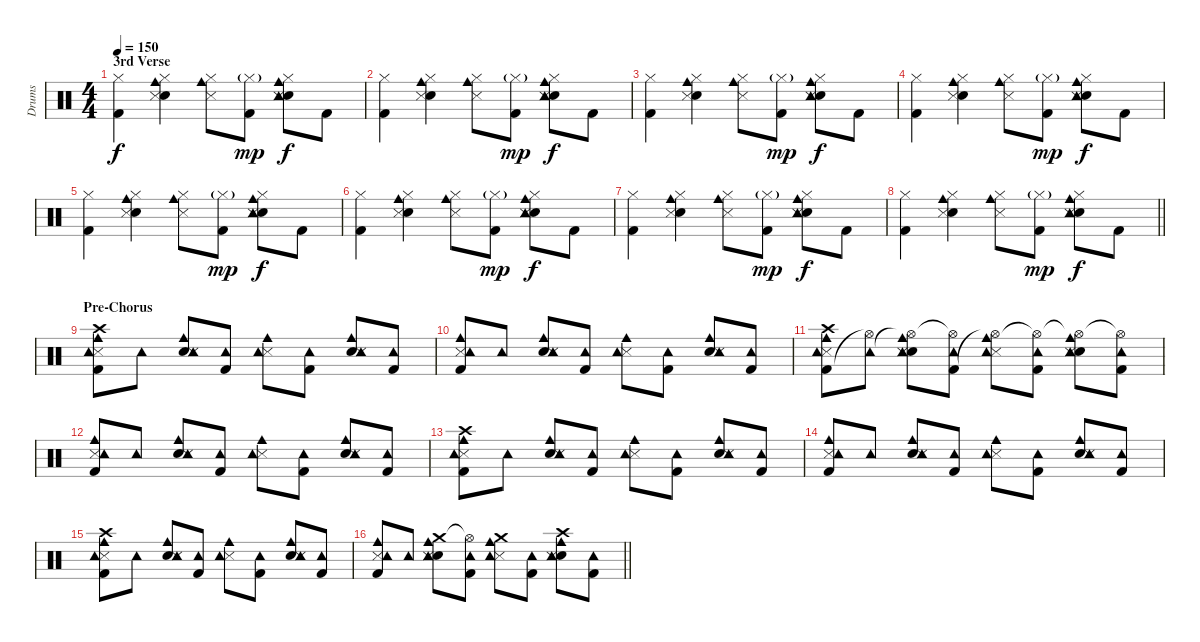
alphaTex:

\track ("Drums" "Drums") {instrument percussion}
\staff {score}
\articulation defaults
\ts (4 4)
\section ("" "3rd Verse")
\tempo 150
\clef neutral
\ks c
("Kick (hit) 2" "Hi-Hat (closed)").4{dy f} ("Electric Snare (hit)" "Hi-Hat (closed)" "Cowbell medium (hit)" "Snare (side stick) 3").4 ("Hi-Hat (closed)" "Cowbell medium (hit)" "Snare (side stick) 3").8 ("Kick (hit) 2" "Hi-Hat (closed)"{g}).8{dy mp} ("Electric Snare (hit)" "Hi-Hat (closed)" "Cowbell medium (hit)" "Snare (side stick) 3" "Tambourine (hit)").8{dy f} "Kick (hit) 2".8 |
("Kick (hit) 2" "Hi-Hat (closed)").4 ("Electric Snare (hit)" "Hi-Hat (closed)" "Cowbell medium (hit)" "Snare (side stick) 3").4 ("Hi-Hat (closed)" "Cowbell medium (hit)" "Snare (side stick) 3").8 ("Kick (hit) 2" "Hi-Hat (closed)"{g}).8{dy mp} ("Electric Snare (hit)" "Hi-Hat (closed)" "Cowbell medium (hit)" "Snare (side stick) 3" "Tambourine (hit)").8{dy f} "Kick (hit) 2".8 |
("Kick (hit) 2" "Hi-Hat (closed)").4 ("Electric Snare (hit)" "Hi-Hat (closed)" "Cowbell medium (hit)" "Snare (side stick) 3").4 ("Hi-Hat (closed)" "Cowbell medium (hit)" "Snare (side stick) 3").8 ("Kick (hit) 2" "Hi-Hat (closed)"{g}).8{dy mp} ("Electric Snare (hit)" "Hi-Hat (closed)" "Cowbell medium (hit)" "Snare (side stick) 3" "Tambourine (hit)").8{dy f} "Kick (hit) 2".8 |
("Kick (hit) 2" "Hi-Hat (closed)").4 ("Electric Snare (hit)" "Hi-Hat (closed)" "Cowbell medium (hit)" "Snare (side stick) 3").4 ("Hi-Hat (closed)" "Cowbell medium (hit)" "Snare (side stick) 3").8 ("Kick (hit) 2" "Hi-Hat (closed)"{g}).8{dy mp} ("Electric Snare (hit)" "Hi-Hat (closed)" "Cowbell medium (hit)" "Snare (side stick) 3" "Tambourine (hit)").8{dy f} "Kick (hit) 2".8 |
("Kick (hit) 2" "Hi-Hat (closed)").4 ("Electric Snare (hit)" "Hi-Hat (closed)" "Cowbell medium (hit)" "Snare (side stick) 3").4 ("Hi-Hat (closed)" "Cowbell medium (hit)" "Snare (side stick) 3").8 ("Kick (hit) 2" "Hi-Hat (closed)"{g}).8{dy mp} ("Electric Snare (hit)" "Hi-Hat (closed)" "Cowbell medium (hit)" "Snare (side stick) 3" "Tambourine (hit)").8{dy f} "Kick (hit) 2".8 |
("Kick (hit) 2" "Hi-Hat (closed)").4 ("Electric Snare (hit)" "Hi-Hat (closed)" "Cowbell medium (hit)" "Snare (side stick) 3").4 ("Hi-Hat (closed)" "Cowbell medium (hit)" "Snare (side stick) 3").8 ("Kick (hit) 2" "Hi-Hat (closed)"{g}).8{dy mp} ("Electric Snare (hit)" "Hi-Hat (closed)" "Cowbell medium (hit)" "Snare (side stick) 3" "Tambourine (hit)").8{dy f} "Kick (hit) 2".8 |
("Kick (hit) 2" "Hi-Hat (closed)").4 ("Electric Snare (hit)" "Hi-Hat (closed)" "Cowbell medium (hit)" "Snare (side stick) 3").4 ("Hi-Hat (closed)" "Cowbell medium (hit)" "Snare (side stick) 3").8 ("Kick (hit) 2" "Hi-Hat (closed)"{g}).8{dy mp} ("Electric Snare (hit)" "Hi-Hat (closed)" "Cowbell medium (hit)" "Snare (side stick) 3" "Tambourine (hit)").8{dy f} "Kick (hit) 2".8 |
\barLineRight lightlight
("Kick (hit) 2" "Hi-Hat (closed)").4 ("Electric Snare (hit)" "Hi-Hat (closed)" "Cowbell medium (hit)" "Snare (side stick) 3").4 ("Hi-Hat (closed)" "Cowbell medium (hit)" "Snare (side stick) 3").8 ("Kick (hit) 2" "Hi-Hat (closed)"{g}).8{dy mp} ("Electric Snare (hit)" "Hi-Hat (closed)" "Cowbell medium (hit)" "Snare (side stick) 3" "Tambourine (hit)").8{dy f} "Kick (hit) 2".8 |
\section ("" "Pre-Chorus")
("Kick (hit) 2" "Crash high (hit)" "Cowbell medium (hit)" "Snare (side stick) 3" "Tambourine (hit)").8 "Tambourine (hit)".8 ("Electric Snare (hit)" "Cowbell medium (hit)" "Snare (side stick) 3" "Tambourine (hit)").8 ("Kick (hit) 2" "Tambourine (hit)").8 ("Cowbell medium (hit)" "Snare (side stick) 3" "Tambourine (hit)").8 ("Kick (hit) 2" "Tambourine (hit)").8 ("Electric Snare (hit)" "Cowbell medium (hit)" "Snare (side stick) 3" "Tambourine (hit)").8 ("Kick (hit) 2" "Tambourine (hit)").8 |
("Kick (hit) 2" "Cowbell medium (hit)" "Snare (side stick) 3" "Tambourine (hit)").8 "Tambourine (hit)".8 ("Electric Snare (hit)" "Cowbell medium (hit)" "Snare (side stick) 3" "Tambourine (hit)").8 ("Kick (hit) 2" "Tambourine (hit)").8 ("Cowbell medium (hit)" "Snare (side stick) 3" "Tambourine (hit)").8 ("Kick (hit) 2" "Tambourine (hit)").8 ("Electric Snare (hit)" "Cowbell medium (hit)" "Snare (side stick) 3" "Tambourine (hit)").8 ("Kick (hit) 2" "Tambourine (hit)").8 |
("Kick (hit) 2" "Crash high (hit)" "Cowbell medium (hit)" "Snare (side stick) 3" "Tambourine (hit)").8 ("Hi-Hat (open)"{t} "Tambourine (hit)").8 ("Electric Snare (hit)" "Hi-Hat (open)"{t} "Cowbell medium (hit)" "Snare (side stick) 3" "Tambourine (hit)").8 ("Kick (hit) 2" "Hi-Hat (open)"{t} "Tambourine (hit)").8 ("Hi-Hat (open)"{t} "Cowbell medium (hit)" "Snare (side stick) 3" "Tambourine (hit)").8 ("Kick (hit) 2" "Hi-Hat (open)"{t} "Tambourine (hit)").8 ("Electric Snare (hit)" "Hi-Hat (open)"{t} "Cowbell medium (hit)" "Snare (side stick) 3" "Tambourine (hit)").8 ("Kick (hit) 2" "Hi-Hat (open)"{t} "Tambourine (hit)").8 |
("Kick (hit) 2" "Cowbell medium (hit)" "Snare (side stick) 3" "Tambourine (hit)").8 "Tambourine (hit)".8 ("Electric Snare (hit)" "Cowbell medium (hit)" "Snare (side stick) 3" "Tambourine (hit)").8 ("Kick (hit) 2" "Tambourine (hit)").8 ("Cowbell medium (hit)" "Snare (side stick) 3" "Tambourine (hit)").8 ("Kick (hit) 2" "Tambourine (hit)").8 ("Electric Snare (hit)" "Cowbell medium (hit)" "Snare (side stick) 3" "Tambourine (hit)").8 ("Kick (hit) 2" "Tambourine (hit)").8 |
("Kick (hit) 2" "Crash high (hit)" "Cowbell medium (hit)" "Snare (side stick) 3" "Tambourine (hit)").8 "Tambourine (hit)".8 ("Electric Snare (hit)" "Cowbell medium (hit)" "Snare (side stick) 3" "Tambourine (hit)").8 ("Kick (hit) 2" "Tambourine (hit)").8 ("Cowbell medium (hit)" "Snare (side stick) 3" "Tambourine (hit)").8 ("Kick (hit) 2" "Tambourine (hit)").8 ("Electric Snare (hit)" "Cowbell medium (hit)" "Snare (side stick) 3" "Tambourine (hit)").8 ("Kick (hit) 2" "Tambourine (hit)").8 |
("Kick (hit) 2" "Cowbell medium (hit)" "Snare (side stick) 3" "Tambourine (hit)").8 "Tambourine (hit)".8 ("Electric Snare (hit)" "Cowbell medium (hit)" "Snare (side stick) 3" "Tambourine (hit)").8 ("Kick (hit) 2" "Tambourine (hit)").8 ("Cowbell medium (hit)" "Snare (side stick) 3" "Tambourine (hit)").8 ("Kick (hit) 2" "Tambourine (hit)").8 ("Electric Snare (hit)" "Cowbell medium (hit)" "Snare (side stick) 3" "Tambourine (hit)").8 ("Kick (hit) 2" "Tambourine (hit)").8 |
("Kick (hit) 2" "Crash high (hit)" "Cowbell medium (hit)" "Snare (side stick) 3" "Tambourine (hit)").8 "Tambourine (hit)".8 ("Electric Snare (hit)" "Cowbell medium (hit)" "Snare (side stick) 3" "Tambourine (hit)").8 ("Kick (hit) 2" "Tambourine (hit)").8 ("Cowbell medium (hit)" "Snare (side stick) 3" "Tambourine (hit)").8 ("Kick (hit) 2" "Tambourine (hit)").8 ("Electric Snare (hit)" "Cowbell medium (hit)" "Snare (side stick) 3" "Tambourine (hit)").8 ("Kick (hit) 2" "Tambourine (hit)").8 |
\barLineRight lightlight
("Kick (hit) 2" "Cowbell medium (hit)" "Snare (side stick) 3" "Tambourine (hit)").8 "Tambourine (hit)".8 ("Electric Snare (hit)" "Crash medium (hit)" "Cowbell medium (hit)" "Snare (side stick) 3" "Tambourine (hit)").8 ("Kick (hit) 2" "Hi-Hat (open)"{t} "Tambourine (hit)").8 ("Crash medium (hit)" "Cowbell medium (hit)" "Snare (side stick) 3" "Tambourine (hit)").8 ("Kick (hit) 2" "Tambourine (hit)").8 ("Electric Snare (hit)" "Crash high (hit)" "Cowbell medium (hit)" "Snare (side stick) 3" "Tambourine (hit)").8 ("Kick (hit) 2" "Tambourine (hit)").8
